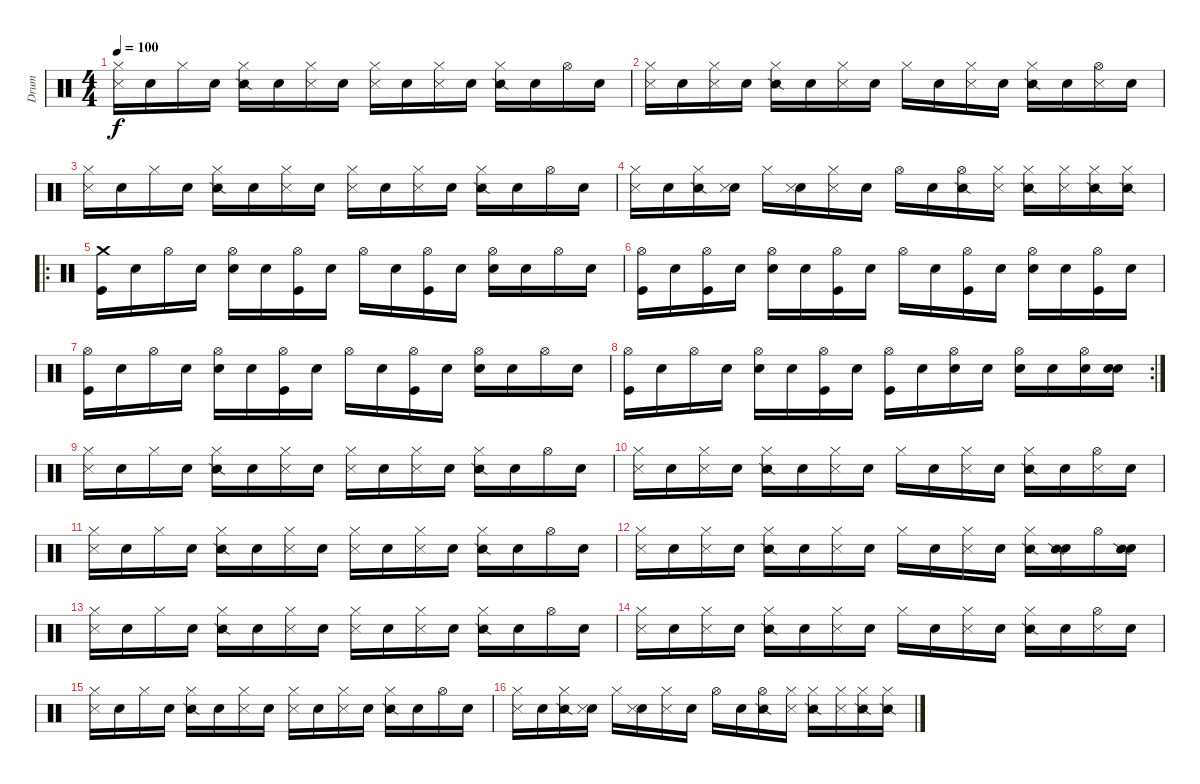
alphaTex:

\track ("Drum" "Drum") {instrument percussion}
\staff {score}
\articulation defaults
\ts (4 4)
\tempo 100
\clef neutral
\ks c
("Hi-Hat (closed)" "Metronome (hit)").16{dy f} "Snare (hit)".16 "Hi-Hat (closed)".16 "Snare (hit)".16 ("Hi-Hat (closed)" "Snare (side stick) 2").16 "Snare (hit)".16 ("Hi-Hat (closed)" "Metronome (hit)").16 "Snare (hit)".16 ("Hi-Hat (closed)" "Metronome (hit)").16 "Snare (hit)".16 ("Hi-Hat (closed)" "Metronome (hit)").16 "Snare (hit)".16 ("Hi-Hat (closed)" "Snare (side stick) 2").16 "Snare (hit)".16 "Hi-Hat (open)".16 "Snare (hit)".16 |
("Hi-Hat (closed)" "Metronome (hit)").16 "Snare (hit)".16 ("Hi-Hat (closed)" "Metronome (hit)").16 "Snare (hit)".16 ("Hi-Hat (closed)" "Snare (side stick) 2").16 "Snare (hit)".16 ("Hi-Hat (closed)" "Metronome (hit)").16 "Snare (hit)".16 "Hi-Hat (closed)".16 "Snare (hit)".16 ("Hi-Hat (closed)" "Metronome (hit)").16 "Snare (hit)".16 ("Hi-Hat (closed)" "Snare (side stick) 2").16 "Snare (hit)".16 ("Hi-Hat (open)" "Metronome (hit)").16 "Snare (hit)".16 |
("Hi-Hat (closed)" "Metronome (hit)").16 "Snare (hit)".16 "Hi-Hat (closed)".16 "Snare (hit)".16 ("Hi-Hat (closed)" "Snare (side stick) 2").16 "Snare (hit)".16 ("Hi-Hat (closed)" "Metronome (hit)").16 "Snare (hit)".16 ("Hi-Hat (closed)" "Metronome (hit)").16 "Snare (hit)".16 ("Hi-Hat (closed)" "Metronome (hit)").16 "Snare (hit)".16 ("Hi-Hat (closed)" "Snare (side stick) 2").16 "Snare (hit)".16 "Hi-Hat (open)".16 "Snare (hit)".16 |
("Hi-Hat (closed)" "Metronome (hit)").16 "Snare (hit)".16 ("Hi-Hat (closed)" "Snare (side stick) 2").16 ("Snare (hit)" "Metronome (hit)").16 "Hi-Hat (closed)".16 ("Snare (hit)" "Metronome (hit)").16 ("Hi-Hat (closed)" "Metronome (hit)").16 "Snare (hit)".16 "Hi-Hat (open)".16 "Snare (hit)".16 ("Hi-Hat (open)" "Snare (side stick) 2").16 ("Hi-Hat (closed)" "Metronome (hit)").16 ("Hi-Hat (closed)" "Snare (side stick) 2").16 ("Hi-Hat (closed)" "Metronome (hit)").16 ("Hi-Hat (closed)" "Snare (side stick) 2").16 ("Hi-Hat (closed)" "Snare (side stick) 2").16 |
\ro
("Crash medium (hit)" "Kick (hit)").16 "Snare (hit)".16 "Hi-Hat (open)".16 "Snare (hit)".16 ("Hi-Hat (open)" "Electric Snare (hit)").16 "Snare (hit)".16 ("Hi-Hat (open)" "Kick (hit)").16 "Snare (hit)".16 "Hi-Hat (open)".16 "Snare (hit)".16 ("Hi-Hat (open)" "Kick (hit)").16 "Snare (hit)".16 ("Hi-Hat (open)" "Electric Snare (hit)").16 "Snare (hit)".16 "Hi-Hat (open)".16 "Snare (hit)".16 |
("Hi-Hat (open)" "Kick (hit)").16 "Snare (hit)".16 ("Hi-Hat (open)" "Kick (hit)").16 "Snare (hit)".16 ("Hi-Hat (open)" "Electric Snare (hit)").16 "Snare (hit)".16 ("Hi-Hat (open)" "Kick (hit)").16 "Snare (hit)".16 "Hi-Hat (open)".16 "Snare (hit)".16 ("Hi-Hat (open)" "Kick (hit)").16 "Snare (hit)".16 ("Hi-Hat (open)" "Electric Snare (hit)").16 "Snare (hit)".16 ("Hi-Hat (open)" "Kick (hit)").16 "Snare (hit)".16 |
("Hi-Hat (open)" "Kick (hit)").16 "Snare (hit)".16 "Hi-Hat (open)".16 "Snare (hit)".16 ("Hi-Hat (open)" "Electric Snare (hit)").16 "Snare (hit)".16 ("Hi-Hat (open)" "Kick (hit)").16 "Snare (hit)".16 "Hi-Hat (open)".16 "Snare (hit)".16 ("Hi-Hat (open)" "Kick (hit)").16 "Snare (hit)".16 ("Hi-Hat (open)" "Electric Snare (hit)").16 "Snare (hit)".16 "Hi-Hat (open)".16 "Snare (hit)".16 |
\rc 2
("Hi-Hat (open)" "Kick (hit)").16 "Snare (hit)".16 "Hi-Hat (open)".16 "Snare (hit)".16 ("Hi-Hat (open)" "Electric Snare (hit)").16 "Snare (hit)".16 ("Hi-Hat (open)" "Kick (hit)").16 "Snare (hit)".16 ("Hi-Hat (open)" "Kick (hit)").16 "Snare (hit)".16 ("Hi-Hat (open)" "Electric Snare (hit)").16 "Snare (hit)".16 ("Hi-Hat (open)" "Electric Snare (hit)").16 "Snare (hit)".16 ("Hi-Hat (open)" "Electric Snare (hit)").16 ("Snare (hit)" "Electric Snare (hit)").16 |
("Hi-Hat (closed)" "Metronome (hit)").16 "Snare (hit)".16 "Hi-Hat (closed)".16 "Snare (hit)".16 ("Hi-Hat (closed)" "Snare (side stick) 2").16 "Snare (hit)".16 ("Hi-Hat (closed)" "Metronome (hit)").16 "Snare (hit)".16 ("Hi-Hat (closed)" "Metronome (hit)").16 "Snare (hit)".16 ("Hi-Hat (closed)" "Metronome (hit)").16 "Snare (hit)".16 ("Hi-Hat (closed)" "Snare (side stick) 2").16 "Snare (hit)".16 "Hi-Hat (open)".16 "Snare (hit)".16 |
("Hi-Hat (closed)" "Metronome (hit)").16 "Snare (hit)".16 ("Hi-Hat (closed)" "Metronome (hit)").16 "Snare (hit)".16 ("Hi-Hat (closed)" "Snare (side stick) 2").16 "Snare (hit)".16 ("Hi-Hat (closed)" "Metronome (hit)").16 "Snare (hit)".16 "Hi-Hat (closed)".16 "Snare (hit)".16 ("Hi-Hat (closed)" "Metronome (hit)").16 "Snare (hit)".16 ("Hi-Hat (closed)" "Snare (side stick) 2").16 "Snare (hit)".16 ("Hi-Hat (open)" "Metronome (hit)").16 "Snare (hit)".16 |
("Hi-Hat (closed)" "Metronome (hit)").16 "Snare (hit)".16 "Hi-Hat (closed)".16 "Snare (hit)".16 ("Hi-Hat (closed)" "Snare (side stick) 2").16 "Snare (hit)".16 ("Hi-Hat (closed)" "Metronome (hit)").16 "Snare (hit)".16 ("Hi-Hat (closed)" "Metronome (hit)").16 "Snare (hit)".16 ("Hi-Hat (closed)" "Metronome (hit)").16 "Snare (hit)".16 ("Hi-Hat (closed)" "Snare (side stick) 2").16 "Snare (hit)".16 "Hi-Hat (open)".16 "Snare (hit)".16 |
("Hi-Hat (closed)" "Metronome (hit)").16 "Snare (hit)".16 ("Hi-Hat (closed)" "Metronome (hit)").16 "Snare (hit)".16 ("Hi-Hat (closed)" "Snare (side stick) 2").16 "Snare (hit)".16 ("Hi-Hat (closed)" "Metronome (hit)").16 "Snare (hit)".16 "Hi-Hat (closed)".16 "Snare (hit)".16 ("Hi-Hat (closed)" "Metronome (hit)").16 "Snare (hit)".16 ("Hi-Hat (closed)" "Snare (side stick) 2").16 ("Snare (hit)" "Snare (side stick) 2").16 "Hi-Hat (open)".16 ("Snare (hit)" "Snare (side stick) 2").16 |
("Hi-Hat (closed)" "Metronome (hit)").16 "Snare (hit)".16 "Hi-Hat (closed)".16 "Snare (hit)".16 ("Hi-Hat (closed)" "Snare (side stick) 2").16 "Snare (hit)".16 ("Hi-Hat (closed)" "Metronome (hit)").16 "Snare (hit)".16 ("Hi-Hat (closed)" "Metronome (hit)").16 "Snare (hit)".16 ("Hi-Hat (closed)" "Metronome (hit)").16 "Snare (hit)".16 ("Hi-Hat (closed)" "Snare (side stick) 2").16 "Snare (hit)".16 "Hi-Hat (open)".16 "Snare (hit)".16 |
("Hi-Hat (closed)" "Metronome (hit)").16 "Snare (hit)".16 ("Hi-Hat (closed)" "Metronome (hit)").16 "Snare (hit)".16 ("Hi-Hat (closed)" "Snare (side stick) 2").16 "Snare (hit)".16 ("Hi-Hat (closed)" "Metronome (hit)").16 "Snare (hit)".16 "Hi-Hat (closed)".16 "Snare (hit)".16 ("Hi-Hat (closed)" "Metronome (hit)").16 "Snare (hit)".16 ("Hi-Hat (closed)" "Snare (side stick) 2").16 "Snare (hit)".16 ("Hi-Hat (open)" "Metronome (hit)").16 "Snare (hit)".16 |
("Hi-Hat (closed)" "Metronome (hit)").16 "Snare (hit)".16 "Hi-Hat (closed)".16 "Snare (hit)".16 ("Hi-Hat (closed)" "Snare (side stick) 2").16 "Snare (hit)".16 ("Hi-Hat (closed)" "Metronome (hit)").16 "Snare (hit)".16 ("Hi-Hat (closed)" "Metronome (hit)").16 "Snare (hit)".16 ("Hi-Hat (closed)" "Metronome (hit)").16 "Snare (hit)".16 ("Hi-Hat (closed)" "Snare (side stick) 2").16 "Snare (hit)".16 "Hi-Hat (open)".16 "Snare (hit)".16 |
("Hi-Hat (closed)" "Metronome (hit)").16 "Snare (hit)".16 ("Hi-Hat (closed)" "Snare (side stick) 2").16 ("Snare (hit)" "Metronome (hit)").16 "Hi-Hat (closed)".16 ("Snare (hit)" "Metronome (hit)").16 ("Hi-Hat (closed)" "Metronome (hit)").16 "Snare (hit)".16 "Hi-Hat (open)".16 "Snare (hit)".16 ("Hi-Hat (open)" "Snare (side stick) 2").16 ("Hi-Hat (closed)" "Metronome (hit)").16 ("Hi-Hat (closed)" "Snare (side stick) 2").16 ("Hi-Hat (closed)" "Metronome (hit)").16 ("Hi-Hat (closed)" "Snare (side stick) 2").16 ("Hi-Hat (closed)" "Snare (side stick) 2").16
